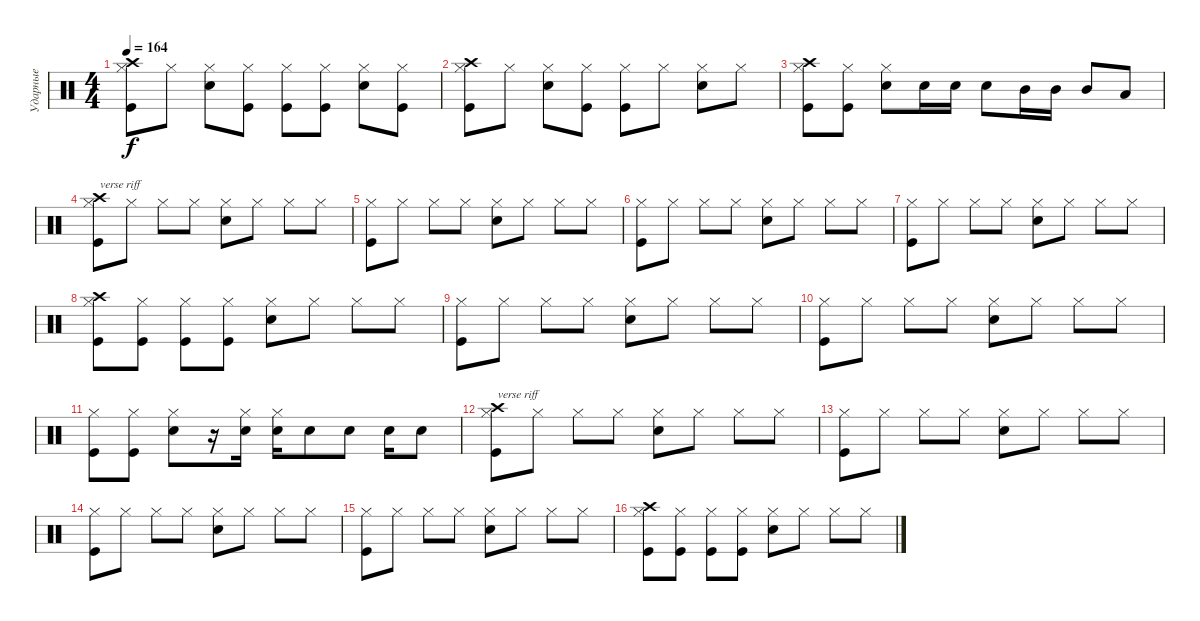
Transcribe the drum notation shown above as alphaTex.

\track ("Ударные" "Ударные") {instrument percussion}
\staff {score}
\articulation defaults
\ts (4 4)
\tempo 164
\clef neutral
\ks c
("Hi-Hat (closed)" "Crash high (hit)" "Kick (hit)").8{dy f} "Hi-Hat (closed)".8 ("Hi-Hat (closed)" "Snare (hit) 2").8 ("Hi-Hat (closed)" "Kick (hit)").8 ("Hi-Hat (closed)" "Kick (hit)").8 ("Hi-Hat (closed)" "Kick (hit)").8 ("Hi-Hat (closed)" "Snare (hit) 2").8 ("Hi-Hat (closed)" "Kick (hit)").8 |
("Hi-Hat (closed)" "Crash high (hit)" "Kick (hit)").8 "Hi-Hat (closed)".8 ("Hi-Hat (closed)" "Snare (hit) 2").8 ("Hi-Hat (closed)" "Kick (hit)").8 ("Hi-Hat (closed)" "Kick (hit)").8 "Hi-Hat (closed)".8 ("Hi-Hat (closed)" "Snare (hit) 2").8 "Hi-Hat (closed)".8 |
("Hi-Hat (closed)" "Crash high (hit)" "Kick (hit)").8 ("Hi-Hat (closed)" "Kick (hit)").8 ("Hi-Hat (closed)" "Snare (hit) 2").8 "Snare (hit) 2".16 "Snare (hit) 2".16 "Snare (hit) 2".8 "Mid Tom (hit)".16 "Mid Tom (hit)".16 "Mid Tom (hit)".8 "Low Floor Tom (hit)".8 |
("Hi-Hat (closed)" "Crash high (hit)" "Kick (hit)").8{txt "verse riff"} "Hi-Hat (closed)".8 "Hi-Hat (closed)".8 "Hi-Hat (closed)".8 ("Hi-Hat (closed)" "Snare (hit) 2").8 "Hi-Hat (closed)".8 "Hi-Hat (closed)".8 "Hi-Hat (closed)".8 |
("Hi-Hat (closed)" "Kick (hit)").8 "Hi-Hat (closed)".8 "Hi-Hat (closed)".8 "Hi-Hat (closed)".8 ("Hi-Hat (closed)" "Snare (hit) 2").8 "Hi-Hat (closed)".8 "Hi-Hat (closed)".8 "Hi-Hat (closed)".8 |
("Hi-Hat (closed)" "Kick (hit)").8 "Hi-Hat (closed)".8 "Hi-Hat (closed)".8 "Hi-Hat (closed)".8 ("Hi-Hat (closed)" "Snare (hit) 2").8 "Hi-Hat (closed)".8 "Hi-Hat (closed)".8 "Hi-Hat (closed)".8 |
("Hi-Hat (closed)" "Kick (hit)").8 "Hi-Hat (closed)".8 "Hi-Hat (closed)".8 "Hi-Hat (closed)".8 ("Hi-Hat (closed)" "Snare (hit) 2").8 "Hi-Hat (closed)".8 "Hi-Hat (closed)".8 "Hi-Hat (closed)".8 |
("Hi-Hat (closed)" "Crash high (hit)" "Kick (hit)").8 ("Hi-Hat (closed)" "Kick (hit)").8 ("Hi-Hat (closed)" "Kick (hit)").8 ("Hi-Hat (closed)" "Kick (hit)").8 ("Hi-Hat (closed)" "Snare (hit) 2").8 "Hi-Hat (closed)".8 "Hi-Hat (closed)".8 "Hi-Hat (closed)".8 |
("Hi-Hat (closed)" "Kick (hit)").8 "Hi-Hat (closed)".8 "Hi-Hat (closed)".8 "Hi-Hat (closed)".8 ("Hi-Hat (closed)" "Snare (hit) 2").8 "Hi-Hat (closed)".8 "Hi-Hat (closed)".8 "Hi-Hat (closed)".8 |
("Hi-Hat (closed)" "Kick (hit)").8 "Hi-Hat (closed)".8 "Hi-Hat (closed)".8 "Hi-Hat (closed)".8 ("Hi-Hat (closed)" "Snare (hit) 2").8 "Hi-Hat (closed)".8 "Hi-Hat (closed)".8 "Hi-Hat (closed)".8 |
("Hi-Hat (closed)" "Kick (hit)").8 ("Hi-Hat (closed)" "Kick (hit)").8 ("Hi-Hat (closed)" "Snare (hit) 2").8 r.16 ("Hi-Hat (closed)" "Snare (hit) 2").16 ("Hi-Hat (closed)" "Snare (hit) 2").16 "Snare (hit) 2".8 "Snare (hit) 2".8 "Snare (hit) 2".16 "Snare (hit) 2".8 |
("Hi-Hat (closed)" "Crash high (hit)" "Kick (hit)").8{txt "verse riff"} "Hi-Hat (closed)".8 "Hi-Hat (closed)".8 "Hi-Hat (closed)".8 ("Hi-Hat (closed)" "Snare (hit) 2").8 "Hi-Hat (closed)".8 "Hi-Hat (closed)".8 "Hi-Hat (closed)".8 |
("Hi-Hat (closed)" "Kick (hit)").8 "Hi-Hat (closed)".8 "Hi-Hat (closed)".8 "Hi-Hat (closed)".8 ("Hi-Hat (closed)" "Snare (hit) 2").8 "Hi-Hat (closed)".8 "Hi-Hat (closed)".8 "Hi-Hat (closed)".8 |
("Hi-Hat (closed)" "Kick (hit)").8 "Hi-Hat (closed)".8 "Hi-Hat (closed)".8 "Hi-Hat (closed)".8 ("Hi-Hat (closed)" "Snare (hit) 2").8 "Hi-Hat (closed)".8 "Hi-Hat (closed)".8 "Hi-Hat (closed)".8 |
("Hi-Hat (closed)" "Kick (hit)").8 "Hi-Hat (closed)".8 "Hi-Hat (closed)".8 "Hi-Hat (closed)".8 ("Hi-Hat (closed)" "Snare (hit) 2").8 "Hi-Hat (closed)".8 "Hi-Hat (closed)".8 "Hi-Hat (closed)".8 |
("Hi-Hat (closed)" "Crash high (hit)" "Kick (hit)").8 ("Hi-Hat (closed)" "Kick (hit)").8 ("Hi-Hat (closed)" "Kick (hit)").8 ("Hi-Hat (closed)" "Kick (hit)").8 ("Hi-Hat (closed)" "Snare (hit) 2").8 "Hi-Hat (closed)".8 "Hi-Hat (closed)".8 "Hi-Hat (closed)".8
